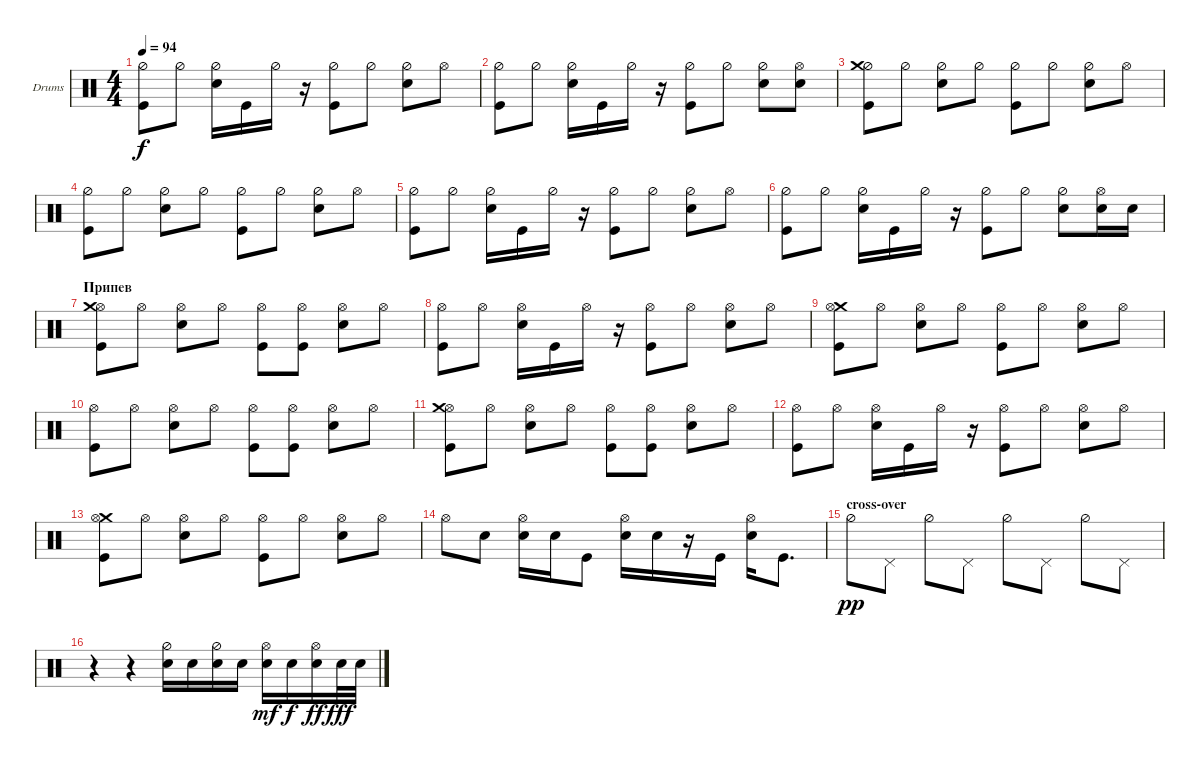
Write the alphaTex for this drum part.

\defaultSystemsLayout 4
\bracketExtendMode groupsimilarinstruments
\firstSystemTrackNameOrientation horizontal
\otherSystemsTrackNameOrientation horizontal
\track ("Drumkit" "Drums") {instrument percussion}
\staff {score}
\articulation defaults
\ts (4 4)
\tempo 94
\clef neutral
\ks c
("Kick (hit)" "Hi-Hat (half)").8{dy f} "Hi-Hat (half)".8 ("Snare (hit) 2" "Hi-Hat (half)").16 "Kick (hit)".16 "Hi-Hat (half)".16 r.16 ("Hi-Hat (half)" "Kick (hit)").8 "Hi-Hat (half)".8 ("Hi-Hat (half)" "Snare (hit) 2").8 "Hi-Hat (open)".8 |
("Kick (hit)" "Hi-Hat (half)").8 "Hi-Hat (half)".8 ("Snare (hit) 2" "Hi-Hat (half)").16 "Kick (hit)".16 "Hi-Hat (half)".16 r.16 ("Hi-Hat (half)" "Kick (hit)").8 "Hi-Hat (half)".8 ("Hi-Hat (half)" "Snare (hit) 2").8 ("Hi-Hat (open)" "Snare (hit) 2").8 |
("Kick (hit)" "Hi-Hat (half)" "Crash medium (hit)").8 "Hi-Hat (half)".8 ("Snare (hit) 2" "Hi-Hat (half)").8 "Hi-Hat (half)".8 ("Kick (hit)" "Hi-Hat (half)").8 "Hi-Hat (half)".8 ("Snare (hit) 2" "Hi-Hat (half)").8 "Hi-Hat (open)".8 |
("Kick (hit)" "Hi-Hat (half)").8 "Hi-Hat (half)".8 ("Snare (hit) 2" "Hi-Hat (half)").8 "Hi-Hat (half)".8 ("Kick (hit)" "Hi-Hat (half)").8 "Hi-Hat (half)".8 ("Snare (hit) 2" "Hi-Hat (half)").8 "Hi-Hat (open)".8 |
("Kick (hit)" "Hi-Hat (half)").8 "Hi-Hat (half)".8 ("Snare (hit) 2" "Hi-Hat (half)").16 "Kick (hit)".16 "Hi-Hat (half)".16 r.16 ("Hi-Hat (half)" "Kick (hit)").8 "Hi-Hat (half)".8 ("Hi-Hat (half)" "Snare (hit) 2").8 "Hi-Hat (open)".8 |
("Kick (hit)" "Hi-Hat (half)").8 "Hi-Hat (half)".8 ("Snare (hit) 2" "Hi-Hat (half)").16 "Kick (hit)".16 "Hi-Hat (half)".16 r.16 ("Hi-Hat (half)" "Kick (hit)").8 "Hi-Hat (half)".8 ("Hi-Hat (half)" "Snare (hit) 2").8 ("Hi-Hat (open)" "Snare (hit) 2").16 "Snare (hit) 2".16 |
\section ("" "Припев")
("Kick (hit)" "Hi-Hat (open)" "Crash medium (hit)").8 "Hi-Hat (open)".8 ("Snare (hit) 2" "Hi-Hat (open)").8 "Hi-Hat (open)".8 ("Kick (hit)" "Hi-Hat (open)").8 ("Kick (hit)" "Hi-Hat (open)").8 ("Snare (hit) 2" "Hi-Hat (open)").8 "Hi-Hat (open)".8 |
("Kick (hit)" "Hi-Hat (open)").8 "Hi-Hat (open)".8 ("Snare (hit) 2" "Hi-Hat (open)").16 "Kick (hit)".16 "Hi-Hat (open)".16 r.16 ("Hi-Hat (open)" "Kick (hit)").8 "Hi-Hat (open)".8 ("Hi-Hat (open)" "Snare (hit) 2").8 "Hi-Hat (open)".8 |
("Kick (hit)" "Crash medium (hit)" "Hi-Hat (open)").8 "Hi-Hat (open)".8 ("Snare (hit) 2" "Hi-Hat (open)").8 "Hi-Hat (open)".8 ("Kick (hit)" "Hi-Hat (open)").8 "Hi-Hat (open)".8 ("Snare (hit) 2" "Hi-Hat (open)").8 "Hi-Hat (open)".8 |
("Kick (hit)" "Hi-Hat (open)").8 "Hi-Hat (open)".8 ("Snare (hit) 2" "Hi-Hat (open)").8 "Hi-Hat (open)".8 ("Kick (hit)" "Hi-Hat (open)").8 ("Kick (hit)" "Hi-Hat (open)").8 ("Snare (hit) 2" "Hi-Hat (open)").8 "Hi-Hat (open)".8 |
("Kick (hit)" "Hi-Hat (open)" "Crash medium (hit)").8 "Hi-Hat (open)".8 ("Snare (hit) 2" "Hi-Hat (open)").8 "Hi-Hat (open)".8 ("Kick (hit)" "Hi-Hat (open)").8 ("Kick (hit)" "Hi-Hat (open)").8 ("Snare (hit) 2" "Hi-Hat (open)").8 "Hi-Hat (open)".8 |
("Kick (hit)" "Hi-Hat (open)").8 "Hi-Hat (open)".8 ("Snare (hit) 2" "Hi-Hat (open)").16 "Kick (hit)".16 "Hi-Hat (open)".16 r.16 ("Hi-Hat (open)" "Kick (hit)").8 "Hi-Hat (open)".8 ("Hi-Hat (open)" "Snare (hit) 2").8 "Hi-Hat (open)".8 |
("Kick (hit)" "Crash medium (hit)" "Hi-Hat (open)").8 "Hi-Hat (open)".8 ("Snare (hit) 2" "Hi-Hat (open)").8 "Hi-Hat (open)".8 ("Kick (hit)" "Hi-Hat (open)").8 "Hi-Hat (open)".8 ("Snare (hit) 2" "Hi-Hat (open)").8 "Hi-Hat (open)".8 |
"Hi-Hat (open)".8 "Snare (hit) 2".8 ("Snare (hit) 2" "Hi-Hat (open)").16 "Snare (hit) 2".16 "Kick (hit)".8 ("Snare (hit) 2" "Hi-Hat (open)").16 "Snare (hit) 2".16 r.16 "Kick (hit)".16 ("Snare (hit) 2" "Hi-Hat (open)").16 "Kick (hit)".8{d} |
\section ("" "cross-over")
"Hi-Hat (half)".8{dy pp} "Pedal Hi-Hat (hit)".8 "Hi-Hat (half)".8 "Pedal Hi-Hat (hit)".8 "Hi-Hat (half)".8 "Pedal Hi-Hat (hit)".8 "Hi-Hat (half)".8 "Pedal Hi-Hat (hit)".8 |
r.4 r.4 ("Snare (hit) 2" "Hi-Hat (half)").16 "Snare (hit) 2".16 ("Snare (hit) 2" "Hi-Hat (half)").16 "Snare (hit) 2".16 ("Snare (hit) 2" "Hi-Hat (open)").16{dy mf} "Snare (hit) 2".16{dy f} ("Snare (hit) 2" "Hi-Hat (open)").16{dy ff} "Snare (hit) 2".32{dy fff} "Snare (hit) 2".32
